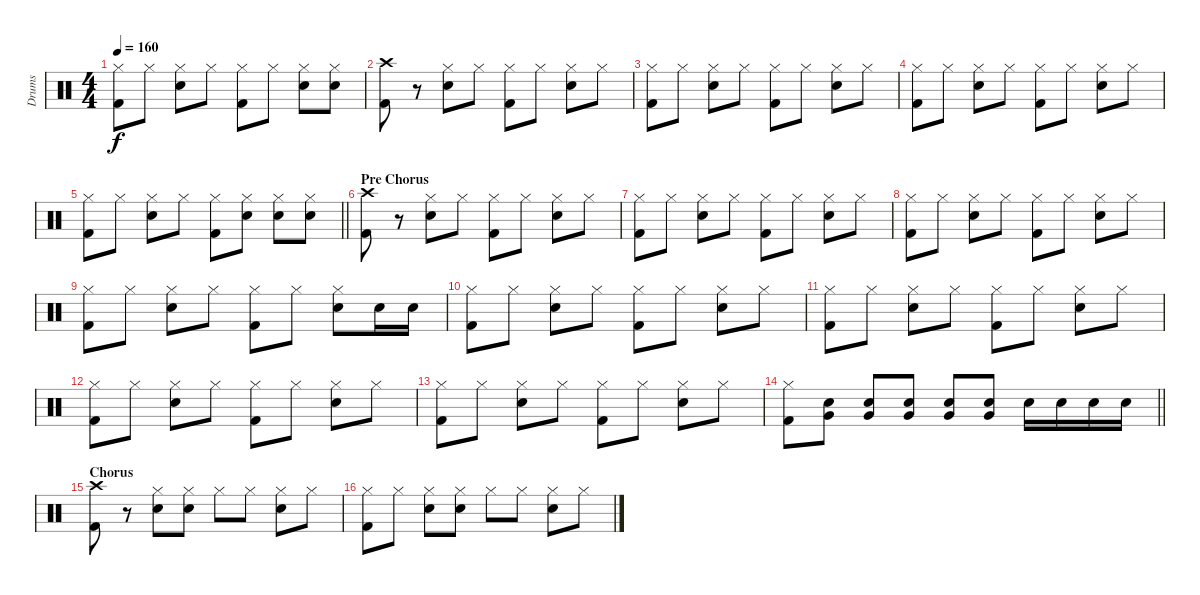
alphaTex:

\track ("Drums" "Drums") {instrument percussion}
\staff {score}
\articulation defaults
\ts (4 4)
\tempo 160
\clef neutral
\ks c
("Hi-Hat (closed)" "Kick (hit) 2").8{dy f} "Hi-Hat (closed)".8 ("Hi-Hat (closed)" "Electric Snare (hit)").8 "Hi-Hat (closed)".8 ("Hi-Hat (closed)" "Kick (hit) 2").8 "Hi-Hat (closed)".8 ("Hi-Hat (closed)" "Electric Snare (hit)").8 ("Hi-Hat (closed)" "Electric Snare (hit)").8 |
("Crash high (hit)" "Kick (hit) 2").8 r.8 ("Hi-Hat (closed)" "Electric Snare (hit)").8 "Hi-Hat (closed)".8 ("Hi-Hat (closed)" "Kick (hit) 2").8 "Hi-Hat (closed)".8 ("Hi-Hat (closed)" "Electric Snare (hit)").8 "Hi-Hat (closed)".8 |
("Hi-Hat (closed)" "Kick (hit) 2").8 "Hi-Hat (closed)".8 ("Hi-Hat (closed)" "Electric Snare (hit)").8 "Hi-Hat (closed)".8 ("Hi-Hat (closed)" "Kick (hit) 2").8 "Hi-Hat (closed)".8 ("Hi-Hat (closed)" "Electric Snare (hit)").8 "Hi-Hat (closed)".8 |
("Hi-Hat (closed)" "Kick (hit) 2").8 "Hi-Hat (closed)".8 ("Hi-Hat (closed)" "Electric Snare (hit)").8 "Hi-Hat (closed)".8 ("Hi-Hat (closed)" "Kick (hit) 2").8 "Hi-Hat (closed)".8 ("Hi-Hat (closed)" "Electric Snare (hit)").8 "Hi-Hat (closed)".8 |
\barLineRight lightlight
("Hi-Hat (closed)" "Kick (hit) 2").8 "Hi-Hat (closed)".8 ("Hi-Hat (closed)" "Electric Snare (hit)").8 "Hi-Hat (closed)".8 ("Hi-Hat (closed)" "Kick (hit) 2").8 ("Hi-Hat (closed)" "Electric Snare (hit)").8 ("Hi-Hat (closed)" "Electric Snare (hit)").8 ("Hi-Hat (closed)" "Electric Snare (hit)").8 |
\section ("" "Pre Chorus")
("Crash high (hit)" "Kick (hit) 2").8 r.8 ("Hi-Hat (closed)" "Electric Snare (hit)").8 "Hi-Hat (closed)".8 ("Hi-Hat (closed)" "Kick (hit) 2").8 "Hi-Hat (closed)".8 ("Hi-Hat (closed)" "Electric Snare (hit)").8 "Hi-Hat (closed)".8 |
("Hi-Hat (closed)" "Kick (hit) 2").8 "Hi-Hat (closed)".8 ("Hi-Hat (closed)" "Electric Snare (hit)").8 "Hi-Hat (closed)".8 ("Hi-Hat (closed)" "Kick (hit) 2").8 "Hi-Hat (closed)".8 ("Hi-Hat (closed)" "Electric Snare (hit)").8 "Hi-Hat (closed)".8 |
("Hi-Hat (closed)" "Kick (hit) 2").8 "Hi-Hat (closed)".8 ("Hi-Hat (closed)" "Electric Snare (hit)").8 "Hi-Hat (closed)".8 ("Hi-Hat (closed)" "Kick (hit) 2").8 "Hi-Hat (closed)".8 ("Hi-Hat (closed)" "Electric Snare (hit)").8 "Hi-Hat (closed)".8 |
("Hi-Hat (closed)" "Kick (hit) 2").8 "Hi-Hat (closed)".8 ("Hi-Hat (closed)" "Electric Snare (hit)").8 "Hi-Hat (closed)".8 ("Hi-Hat (closed)" "Kick (hit) 2").8 "Hi-Hat (closed)".8 ("Hi-Hat (closed)" "Electric Snare (hit)").8 "Electric Snare (hit)".16 "Electric Snare (hit)".16 |
("Hi-Hat (closed)" "Kick (hit) 2").8 "Hi-Hat (closed)".8 ("Hi-Hat (closed)" "Electric Snare (hit)").8 "Hi-Hat (closed)".8 ("Hi-Hat (closed)" "Kick (hit) 2").8 "Hi-Hat (closed)".8 ("Hi-Hat (closed)" "Electric Snare (hit)").8 "Hi-Hat (closed)".8 |
("Hi-Hat (closed)" "Kick (hit) 2").8 "Hi-Hat (closed)".8 ("Hi-Hat (closed)" "Electric Snare (hit)").8 "Hi-Hat (closed)".8 ("Hi-Hat (closed)" "Kick (hit) 2").8 "Hi-Hat (closed)".8 ("Hi-Hat (closed)" "Electric Snare (hit)").8 "Hi-Hat (closed)".8 |
("Hi-Hat (closed)" "Kick (hit) 2").8 "Hi-Hat (closed)".8 ("Hi-Hat (closed)" "Electric Snare (hit)").8 "Hi-Hat (closed)".8 ("Hi-Hat (closed)" "Kick (hit) 2").8 "Hi-Hat (closed)".8 ("Hi-Hat (closed)" "Electric Snare (hit)").8 "Hi-Hat (closed)".8 |
("Hi-Hat (closed)" "Kick (hit) 2").8 "Hi-Hat (closed)".8 ("Hi-Hat (closed)" "Electric Snare (hit)").8 "Hi-Hat (closed)".8 ("Hi-Hat (closed)" "Kick (hit) 2").8 "Hi-Hat (closed)".8 ("Hi-Hat (closed)" "Electric Snare (hit)").8 "Hi-Hat (closed)".8 |
\barLineRight lightlight
("Hi-Hat (closed)" "Kick (hit) 2").8 ("Electric Snare (hit)" "Very Low Tom (hit)").8 ("Electric Snare (hit)" "Very Low Tom (hit)").8 ("Electric Snare (hit)" "Very Low Tom (hit)").8 ("Electric Snare (hit)" "Very Low Tom (hit)").8 ("Electric Snare (hit)" "Very Low Tom (hit)").8 "Electric Snare (hit)".16 "Electric Snare (hit)".16 "Electric Snare (hit)".16 "Electric Snare (hit)".16 |
\section ("" "Chorus")
("Crash high (hit)" "Kick (hit) 2").8 r.8 ("Hi-Hat (closed)" "Electric Snare (hit)").8 ("Hi-Hat (closed)" "Electric Snare (hit)").8 "Hi-Hat (closed)".8 "Hi-Hat (closed)".8 ("Hi-Hat (closed)" "Electric Snare (hit)").8 "Hi-Hat (closed)".8 |
("Hi-Hat (closed)" "Kick (hit) 2").8 "Hi-Hat (closed)".8 ("Hi-Hat (closed)" "Electric Snare (hit)").8 ("Hi-Hat (closed)" "Electric Snare (hit)").8 "Hi-Hat (closed)".8 "Hi-Hat (closed)".8 ("Hi-Hat (closed)" "Electric Snare (hit)").8 "Hi-Hat (closed)".8
